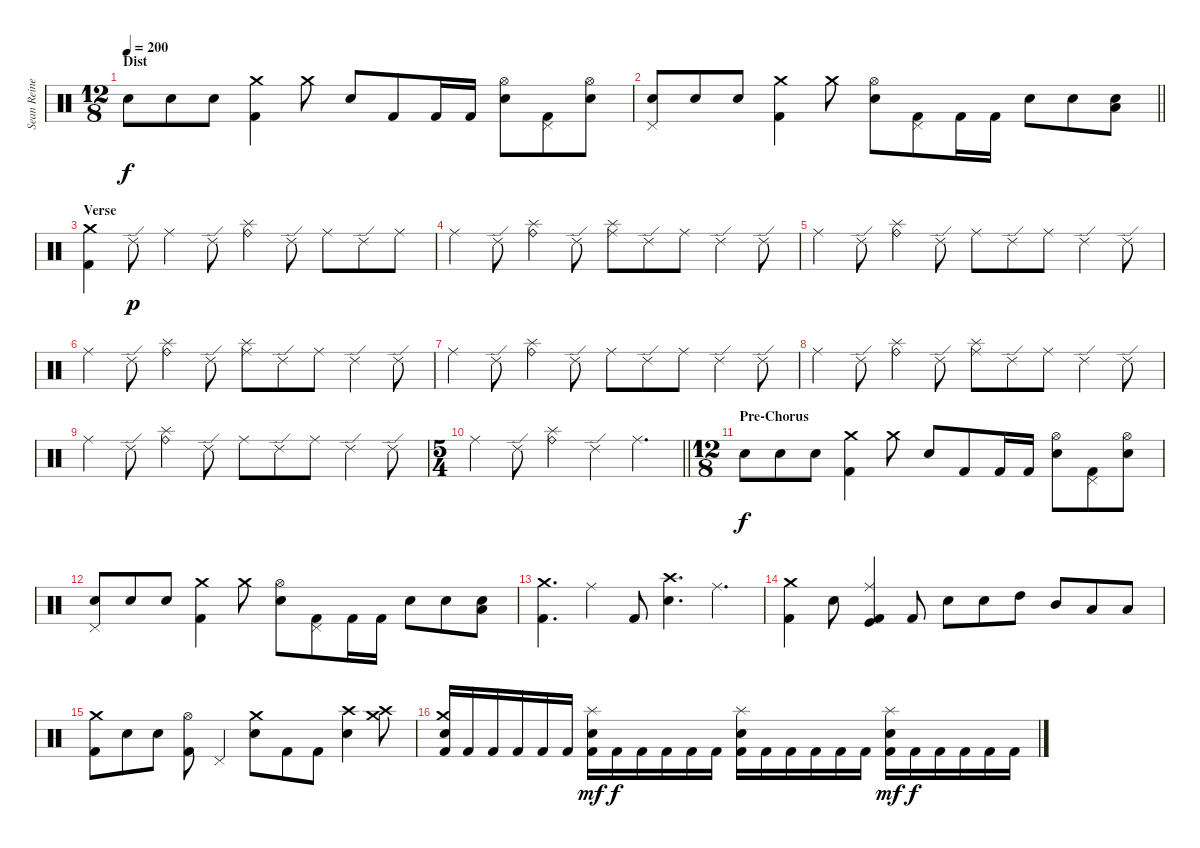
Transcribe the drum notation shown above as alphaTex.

\track ("Sean Reinert" "Sean Reine") {instrument percussion}
\staff {score}
\articulation defaults
\ts (12 8)
\section ("" "Dist")
\tempo 200
\clef neutral
\ks c "Snare (hit) 2".8{dy f} "Snare (hit) 2".8 "Snare (hit) 2".8
("Crash medium (hit)" "Kick (hit) 2").4 "Crash medium (hit)".8 "Snare (hit) 2".8 "Kick (hit) 2".8 "Kick (hit) 2".16 "Kick (hit) 2".16 ("Hi-Hat (open)" "Snare (hit) 2").8 ("Pedal Hi-Hat (hit)" "Kick (hit) 2").8 ("Hi-Hat (open)" "Snare (hit) 2").8 |
\barLineRight lightlight
("Pedal Hi-Hat (hit)" "Snare (hit) 2").8 "Snare (hit) 2".8 "Snare (hit) 2".8 ("Crash medium (hit)" "Kick (hit) 2").4 "Crash medium (hit)".8 ("Hi-Hat (open)" "Snare (hit) 2").8 ("Pedal Hi-Hat (hit)" "Kick (hit) 2").8 "Kick (hit) 2".16 "Kick (hit) 2".16 "Snare (hit) 2".8 "Snare (hit) 2".8 ("Low Floor Tom (hit)" "Snare (hit) 2").8 |
\section ("" "Verse")
("Crash medium (hit)" "Kick (hit) 2").4 "Ride (edge) 2".8{dy p} "Ride (middle)".4 "Ride (edge) 2".8 ("Splash (hit)" "Ride (bell)").4 "Ride (edge) 2".8 "Ride (middle)".8 "Ride (edge) 2".8 "Ride (middle)".8 |
"Ride (middle)".4 "Ride (edge) 2".8 ("Splash (hit)" "Ride (bell)").4 "Ride (edge) 2".8 ("Splash (hit)" "Ride (middle)").8 "Ride (edge) 2".8 "Ride (middle)".8 "Ride (edge) 2".4 "Ride (edge) 2".8 |
"Ride (middle)".4 "Ride (edge) 2".8 ("Splash (hit)" "Ride (bell)").4 "Ride (edge) 2".8 "Ride (middle)".8 "Ride (edge) 2".8 "Ride (middle)".8 "Ride (edge) 2".4 "Ride (edge) 2".8 |
"Ride (middle)".4 "Ride (edge) 2".8 ("Splash (hit)" "Ride (bell)").4 "Ride (edge) 2".8 ("Splash (hit)" "Ride (middle)").8 "Ride (edge) 2".8 "Ride (middle)".8 "Ride (edge) 2".4 "Ride (edge) 2".8 |
"Ride (middle)".4 "Ride (edge) 2".8 ("Splash (hit)" "Ride (bell)").4 "Ride (edge) 2".8 "Ride (middle)".8 "Ride (edge) 2".8 "Ride (middle)".8 "Ride (edge) 2".4 "Ride (edge) 2".8 |
"Ride (middle)".4 "Ride (edge) 2".8 ("Splash (hit)" "Ride (bell)").4 "Ride (edge) 2".8 ("Splash (hit)" "Ride (middle)").8 "Ride (edge) 2".8 "Ride (middle)".8 "Ride (edge) 2".4 "Ride (edge) 2".8 |
"Ride (middle)".4 "Ride (edge) 2".8 ("Splash (hit)" "Ride (bell)").4 "Ride (edge) 2".8 "Ride (middle)".8 "Ride (edge) 2".8 "Ride (middle)".8 "Ride (edge) 2".4 "Ride (edge) 2".8 |
\ts (5 4)
\barLineRight lightlight "Ride (middle)".4 "Ride (edge) 2".8
("Splash (hit)" "Ride (bell)").4 "Ride (edge) 2".4 "Ride (middle)".4{d} |
\ts (12 8)
\section ("" "Pre-Chorus")
"Snare (hit) 2".8{dy f} "Snare (hit) 2".8 "Snare (hit) 2".8 ("Crash medium (hit)" "Kick (hit) 2").4 "Crash medium (hit)".8 "Snare (hit) 2".8 "Kick (hit) 2".8 "Kick (hit) 2".16 "Kick (hit) 2".16 ("Hi-Hat (open)" "Snare (hit) 2").8 ("Pedal Hi-Hat (hit)" "Kick (hit) 2").8 ("Hi-Hat (open)" "Snare (hit) 2").8 |
("Pedal Hi-Hat (hit)" "Snare (hit) 2").8 "Snare (hit) 2".8 "Snare (hit) 2".8 ("Crash medium (hit)" "Kick (hit) 2").4 "Crash medium (hit)".8 ("Hi-Hat (open)" "Snare (hit) 2").8 ("Pedal Hi-Hat (hit)" "Kick (hit) 2").8 "Kick (hit) 2".16 "Kick (hit) 2".16 "Snare (hit) 2".8 "Snare (hit) 2".8 ("Low Floor Tom (hit)" "Snare (hit) 2").8 |
("Crash medium (hit)" "Kick (hit) 2").4{d} "Ride (middle)".4 "Kick (hit) 2".8 ("Crash high (hit)" "Snare (hit) 2").4{d} "Ride (middle)".4{d} |
("Crash medium (hit)" "Kick (hit) 2").4 "Snare (hit) 2".8 ("Kick (hit) 2" "Kick (hit)" "Ride (middle)").4 "Kick (hit) 2".8 "Snare (hit) 2".8 "Snare (hit) 2".8 "High Tom (hit)".8 "Mid Tom (hit)".8 "Low Tom (hit)".8 "Low Tom (hit)".8 |
("Crash medium (hit)" "Kick (hit) 2").8 "Snare (hit) 2".8 "Snare (hit) 2".8 ("Hi-Hat (open)" "Kick (hit) 2").8 "Pedal Hi-Hat (hit)".4 ("Crash medium (hit)" "Snare (hit) 2").8 "Kick (hit) 2".8 "Kick (hit) 2".8 ("Crash high (hit)" "Snare (hit) 2").4 ("Crash high (hit)" "Crash medium (hit)").8 |
("Crash medium (hit)" "Snare (hit) 2" "Kick (hit) 2").16 "Kick (hit) 2".16 "Kick (hit) 2".16 "Kick (hit) 2".16 "Kick (hit) 2".16 "Kick (hit) 2".16 ("Splash (hit)" "Snare (hit) 2" "Kick (hit) 2").16{dy mf} "Kick (hit) 2".16{dy f} "Kick (hit) 2".16 "Kick (hit) 2".16 "Kick (hit) 2".16 "Kick (hit) 2".16 ("Splash (hit)" "Snare (hit) 2" "Kick (hit) 2").16 "Kick (hit) 2".16 "Kick (hit) 2".16 "Kick (hit) 2".16 "Kick (hit) 2".16 "Kick (hit) 2".16 ("Splash (hit)" "Snare (hit) 2" "Kick (hit) 2").16{dy mf} "Kick (hit) 2".16{dy f} "Kick (hit) 2".16 "Kick (hit) 2".16 "Kick (hit) 2".16 "Kick (hit) 2".16
